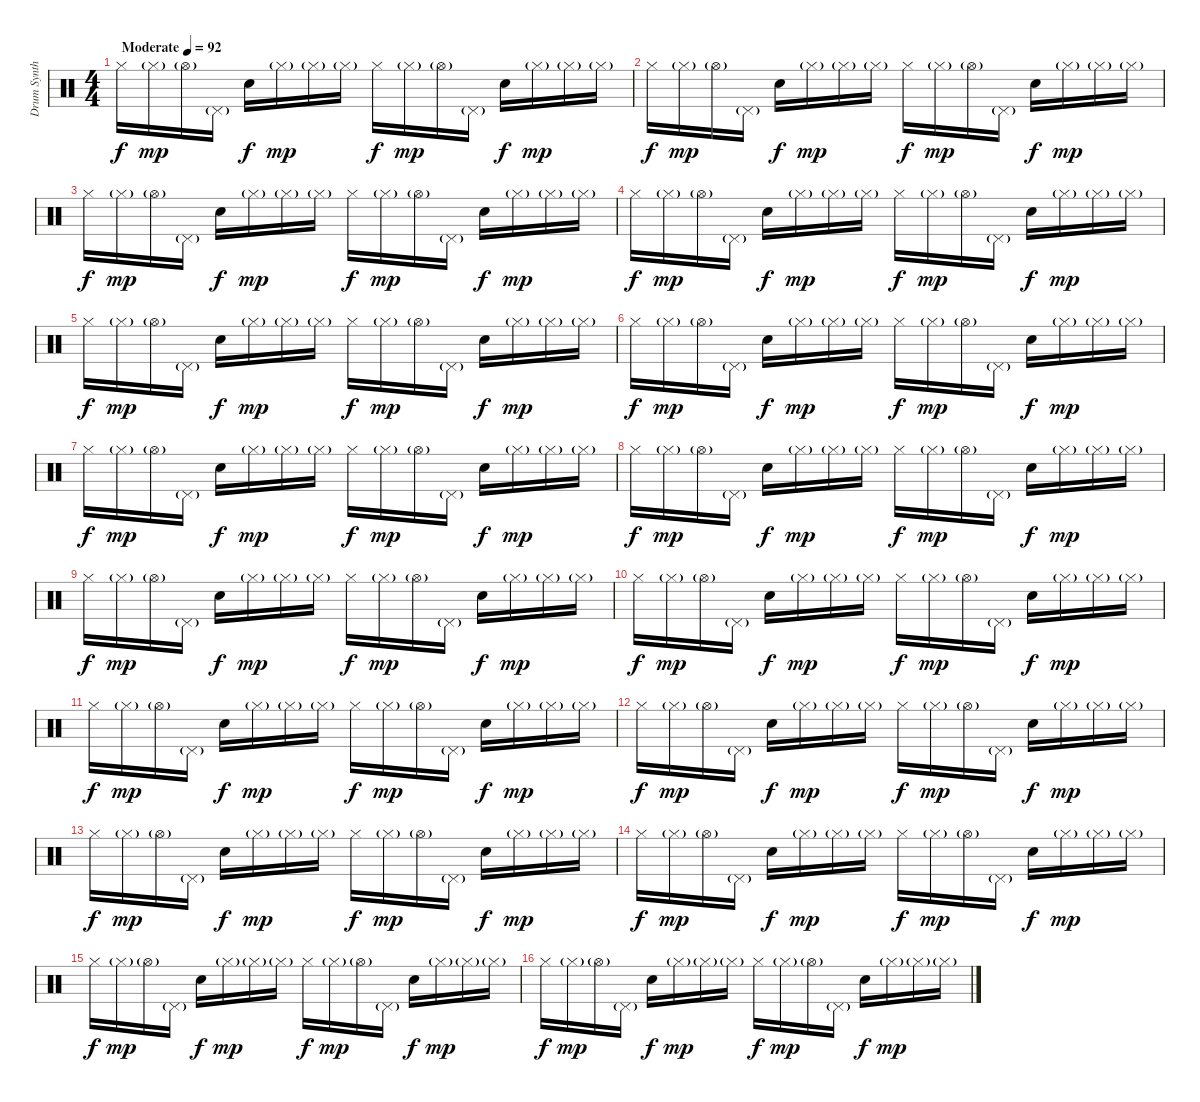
\track ("Drum Synth" "Drum Synth") {instrument percussion}
\staff {score}
\articulation defaults
\ts (4 4)
\tempo (92 "Moderate")
\clef neutral
\ks c "Hi-Hat (closed)".16{dy f} "Hi-Hat (closed)"{g}.16{dy mp} "Hi-Hat (open)"{g}.16 "Pedal Hi-Hat (hit)"{g}.16 "Electric Snare (hit)".16{dy f} "Hi-Hat (closed)"{g}.16{dy mp} "Hi-Hat (closed)"{g}.16 "Hi-Hat (closed)"{g}.16 "Hi-Hat (closed)".16{dy f} "Hi-Hat (closed)"{g}.16{dy mp} "Hi-Hat (open)"{g}.16 "Pedal Hi-Hat (hit)"{g}.16 "Electric Snare (hit)".16{dy f} "Hi-Hat (closed)"{g}.16{dy mp} "Hi-Hat (closed)"{g}.16 "Hi-Hat (closed)"{g}.16
|
"Hi-Hat (closed)".16{dy f} "Hi-Hat (closed)"{g}.16{dy mp} "Hi-Hat (open)"{g}.16 "Pedal Hi-Hat (hit)"{g}.16 "Electric Snare (hit)".16{dy f} "Hi-Hat (closed)"{g}.16{dy mp} "Hi-Hat (closed)"{g}.16 "Hi-Hat (closed)"{g}.16 "Hi-Hat (closed)".16{dy f} "Hi-Hat (closed)"{g}.16{dy mp} "Hi-Hat (open)"{g}.16 "Pedal Hi-Hat (hit)"{g}.16 "Electric Snare (hit)".16{dy f} "Hi-Hat (closed)"{g}.16{dy mp} "Hi-Hat (closed)"{g}.16 "Hi-Hat (closed)"{g}.16 |
"Hi-Hat (closed)".16{dy f} "Hi-Hat (closed)"{g}.16{dy mp} "Hi-Hat (open)"{g}.16 "Pedal Hi-Hat (hit)"{g}.16 "Electric Snare (hit)".16{dy f} "Hi-Hat (closed)"{g}.16{dy mp} "Hi-Hat (closed)"{g}.16 "Hi-Hat (closed)"{g}.16 "Hi-Hat (closed)".16{dy f} "Hi-Hat (closed)"{g}.16{dy mp} "Hi-Hat (open)"{g}.16 "Pedal Hi-Hat (hit)"{g}.16 "Electric Snare (hit)".16{dy f} "Hi-Hat (closed)"{g}.16{dy mp} "Hi-Hat (closed)"{g}.16 "Hi-Hat (closed)"{g}.16 |
"Hi-Hat (closed)".16{dy f} "Hi-Hat (closed)"{g}.16{dy mp} "Hi-Hat (open)"{g}.16 "Pedal Hi-Hat (hit)"{g}.16 "Electric Snare (hit)".16{dy f} "Hi-Hat (closed)"{g}.16{dy mp} "Hi-Hat (closed)"{g}.16 "Hi-Hat (closed)"{g}.16 "Hi-Hat (closed)".16{dy f} "Hi-Hat (closed)"{g}.16{dy mp} "Hi-Hat (open)"{g}.16 "Pedal Hi-Hat (hit)"{g}.16 "Electric Snare (hit)".16{dy f} "Hi-Hat (closed)"{g}.16{dy mp} "Hi-Hat (closed)"{g}.16 "Hi-Hat (closed)"{g}.16 |
"Hi-Hat (closed)".16{dy f} "Hi-Hat (closed)"{g}.16{dy mp} "Hi-Hat (open)"{g}.16 "Pedal Hi-Hat (hit)"{g}.16 "Electric Snare (hit)".16{dy f} "Hi-Hat (closed)"{g}.16{dy mp} "Hi-Hat (closed)"{g}.16 "Hi-Hat (closed)"{g}.16 "Hi-Hat (closed)".16{dy f} "Hi-Hat (closed)"{g}.16{dy mp} "Hi-Hat (open)"{g}.16 "Pedal Hi-Hat (hit)"{g}.16 "Electric Snare (hit)".16{dy f} "Hi-Hat (closed)"{g}.16{dy mp} "Hi-Hat (closed)"{g}.16 "Hi-Hat (closed)"{g}.16 |
"Hi-Hat (closed)".16{dy f} "Hi-Hat (closed)"{g}.16{dy mp} "Hi-Hat (open)"{g}.16 "Pedal Hi-Hat (hit)"{g}.16 "Electric Snare (hit)".16{dy f} "Hi-Hat (closed)"{g}.16{dy mp} "Hi-Hat (closed)"{g}.16 "Hi-Hat (closed)"{g}.16 "Hi-Hat (closed)".16{dy f} "Hi-Hat (closed)"{g}.16{dy mp} "Hi-Hat (open)"{g}.16 "Pedal Hi-Hat (hit)"{g}.16 "Electric Snare (hit)".16{dy f} "Hi-Hat (closed)"{g}.16{dy mp} "Hi-Hat (closed)"{g}.16 "Hi-Hat (closed)"{g}.16 |
"Hi-Hat (closed)".16{dy f} "Hi-Hat (closed)"{g}.16{dy mp} "Hi-Hat (open)"{g}.16 "Pedal Hi-Hat (hit)"{g}.16 "Electric Snare (hit)".16{dy f} "Hi-Hat (closed)"{g}.16{dy mp} "Hi-Hat (closed)"{g}.16 "Hi-Hat (closed)"{g}.16 "Hi-Hat (closed)".16{dy f} "Hi-Hat (closed)"{g}.16{dy mp} "Hi-Hat (open)"{g}.16 "Pedal Hi-Hat (hit)"{g}.16 "Electric Snare (hit)".16{dy f} "Hi-Hat (closed)"{g}.16{dy mp} "Hi-Hat (closed)"{g}.16 "Hi-Hat (closed)"{g}.16 |
"Hi-Hat (closed)".16{dy f} "Hi-Hat (closed)"{g}.16{dy mp} "Hi-Hat (open)"{g}.16 "Pedal Hi-Hat (hit)"{g}.16 "Electric Snare (hit)".16{dy f} "Hi-Hat (closed)"{g}.16{dy mp} "Hi-Hat (closed)"{g}.16 "Hi-Hat (closed)"{g}.16 "Hi-Hat (closed)".16{dy f} "Hi-Hat (closed)"{g}.16{dy mp} "Hi-Hat (open)"{g}.16 "Pedal Hi-Hat (hit)"{g}.16 "Electric Snare (hit)".16{dy f} "Hi-Hat (closed)"{g}.16{dy mp} "Hi-Hat (closed)"{g}.16 "Hi-Hat (closed)"{g}.16 |
"Hi-Hat (closed)".16{dy f} "Hi-Hat (closed)"{g}.16{dy mp} "Hi-Hat (open)"{g}.16 "Pedal Hi-Hat (hit)"{g}.16 "Electric Snare (hit)".16{dy f} "Hi-Hat (closed)"{g}.16{dy mp} "Hi-Hat (closed)"{g}.16 "Hi-Hat (closed)"{g}.16 "Hi-Hat (closed)".16{dy f} "Hi-Hat (closed)"{g}.16{dy mp} "Hi-Hat (open)"{g}.16 "Pedal Hi-Hat (hit)"{g}.16 "Electric Snare (hit)".16{dy f} "Hi-Hat (closed)"{g}.16{dy mp} "Hi-Hat (closed)"{g}.16 "Hi-Hat (closed)"{g}.16 |
"Hi-Hat (closed)".16{dy f} "Hi-Hat (closed)"{g}.16{dy mp} "Hi-Hat (open)"{g}.16 "Pedal Hi-Hat (hit)"{g}.16 "Electric Snare (hit)".16{dy f} "Hi-Hat (closed)"{g}.16{dy mp} "Hi-Hat (closed)"{g}.16 "Hi-Hat (closed)"{g}.16 "Hi-Hat (closed)".16{dy f} "Hi-Hat (closed)"{g}.16{dy mp} "Hi-Hat (open)"{g}.16 "Pedal Hi-Hat (hit)"{g}.16 "Electric Snare (hit)".16{dy f} "Hi-Hat (closed)"{g}.16{dy mp} "Hi-Hat (closed)"{g}.16 "Hi-Hat (closed)"{g}.16 |
"Hi-Hat (closed)".16{dy f} "Hi-Hat (closed)"{g}.16{dy mp} "Hi-Hat (open)"{g}.16 "Pedal Hi-Hat (hit)"{g}.16 "Electric Snare (hit)".16{dy f} "Hi-Hat (closed)"{g}.16{dy mp} "Hi-Hat (closed)"{g}.16 "Hi-Hat (closed)"{g}.16 "Hi-Hat (closed)".16{dy f} "Hi-Hat (closed)"{g}.16{dy mp} "Hi-Hat (open)"{g}.16 "Pedal Hi-Hat (hit)"{g}.16 "Electric Snare (hit)".16{dy f} "Hi-Hat (closed)"{g}.16{dy mp} "Hi-Hat (closed)"{g}.16 "Hi-Hat (closed)"{g}.16 |
"Hi-Hat (closed)".16{dy f} "Hi-Hat (closed)"{g}.16{dy mp} "Hi-Hat (open)"{g}.16 "Pedal Hi-Hat (hit)"{g}.16 "Electric Snare (hit)".16{dy f} "Hi-Hat (closed)"{g}.16{dy mp} "Hi-Hat (closed)"{g}.16 "Hi-Hat (closed)"{g}.16 "Hi-Hat (closed)".16{dy f} "Hi-Hat (closed)"{g}.16{dy mp} "Hi-Hat (open)"{g}.16 "Pedal Hi-Hat (hit)"{g}.16 "Electric Snare (hit)".16{dy f} "Hi-Hat (closed)"{g}.16{dy mp} "Hi-Hat (closed)"{g}.16 "Hi-Hat (closed)"{g}.16 |
"Hi-Hat (closed)".16{dy f} "Hi-Hat (closed)"{g}.16{dy mp} "Hi-Hat (open)"{g}.16 "Pedal Hi-Hat (hit)"{g}.16 "Electric Snare (hit)".16{dy f} "Hi-Hat (closed)"{g}.16{dy mp} "Hi-Hat (closed)"{g}.16 "Hi-Hat (closed)"{g}.16 "Hi-Hat (closed)".16{dy f} "Hi-Hat (closed)"{g}.16{dy mp} "Hi-Hat (open)"{g}.16 "Pedal Hi-Hat (hit)"{g}.16 "Electric Snare (hit)".16{dy f} "Hi-Hat (closed)"{g}.16{dy mp} "Hi-Hat (closed)"{g}.16 "Hi-Hat (closed)"{g}.16 |
"Hi-Hat (closed)".16{dy f} "Hi-Hat (closed)"{g}.16{dy mp} "Hi-Hat (open)"{g}.16 "Pedal Hi-Hat (hit)"{g}.16 "Electric Snare (hit)".16{dy f} "Hi-Hat (closed)"{g}.16{dy mp} "Hi-Hat (closed)"{g}.16 "Hi-Hat (closed)"{g}.16 "Hi-Hat (closed)".16{dy f} "Hi-Hat (closed)"{g}.16{dy mp} "Hi-Hat (open)"{g}.16 "Pedal Hi-Hat (hit)"{g}.16 "Electric Snare (hit)".16{dy f} "Hi-Hat (closed)"{g}.16{dy mp} "Hi-Hat (closed)"{g}.16 "Hi-Hat (closed)"{g}.16 |
"Hi-Hat (closed)".16{dy f} "Hi-Hat (closed)"{g}.16{dy mp} "Hi-Hat (open)"{g}.16 "Pedal Hi-Hat (hit)"{g}.16 "Electric Snare (hit)".16{dy f} "Hi-Hat (closed)"{g}.16{dy mp} "Hi-Hat (closed)"{g}.16 "Hi-Hat (closed)"{g}.16 "Hi-Hat (closed)".16{dy f} "Hi-Hat (closed)"{g}.16{dy mp} "Hi-Hat (open)"{g}.16 "Pedal Hi-Hat (hit)"{g}.16 "Electric Snare (hit)".16{dy f} "Hi-Hat (closed)"{g}.16{dy mp} "Hi-Hat (closed)"{g}.16 "Hi-Hat (closed)"{g}.16 |
"Hi-Hat (closed)".16{dy f} "Hi-Hat (closed)"{g}.16{dy mp} "Hi-Hat (open)"{g}.16 "Pedal Hi-Hat (hit)"{g}.16 "Electric Snare (hit)".16{dy f} "Hi-Hat (closed)"{g}.16{dy mp} "Hi-Hat (closed)"{g}.16 "Hi-Hat (closed)"{g}.16 "Hi-Hat (closed)".16{dy f} "Hi-Hat (closed)"{g}.16{dy mp} "Hi-Hat (open)"{g}.16 "Pedal Hi-Hat (hit)"{g}.16 "Electric Snare (hit)".16{dy f} "Hi-Hat (closed)"{g}.16{dy mp} "Hi-Hat (closed)"{g}.16 "Hi-Hat (closed)"{g}.16
